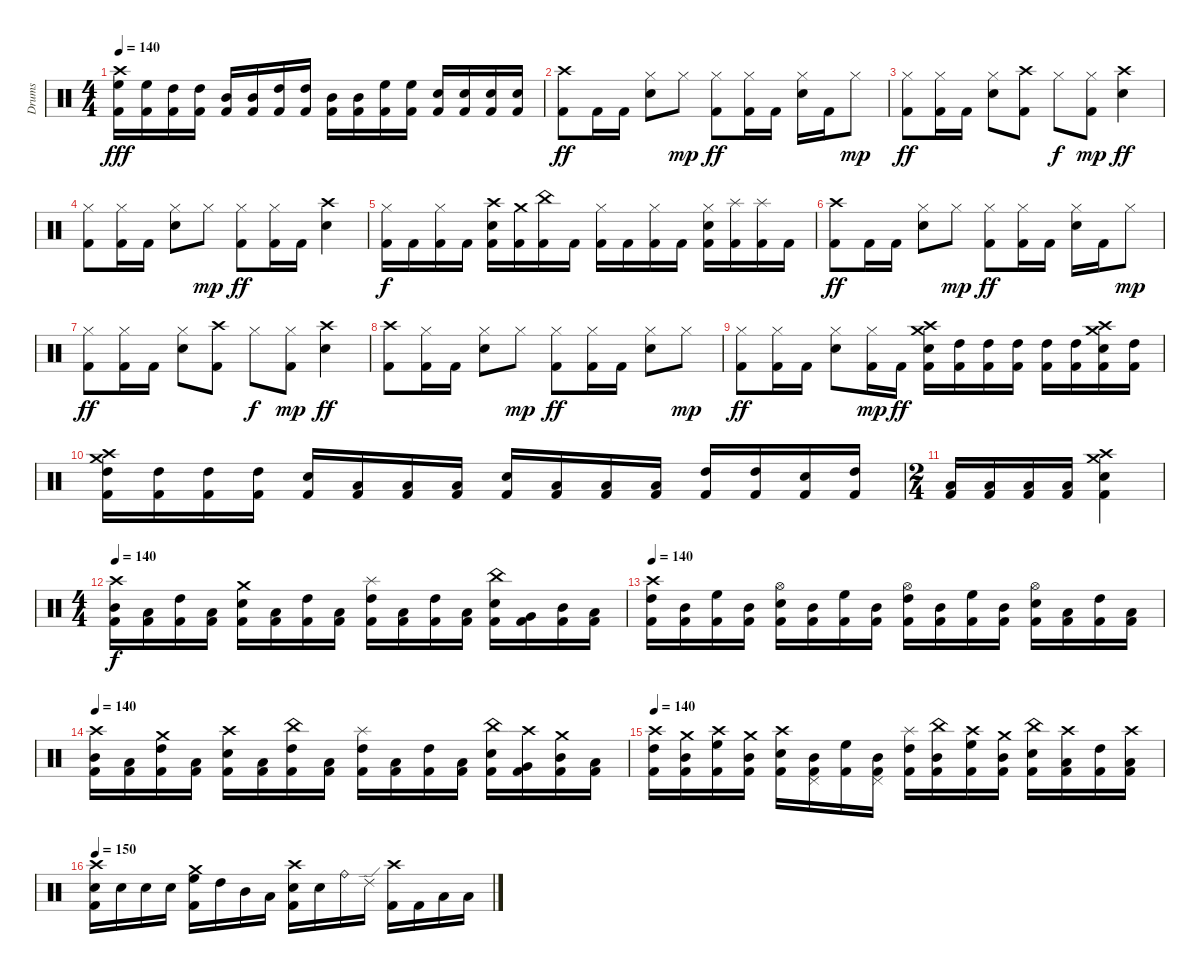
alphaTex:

\track ("Drums" "Drums") {instrument percussion}
\staff {score}
\articulation defaults
\ts (4 4)
\tempo 140
\clef neutral
\ks c
("Crash high (hit)" "High Floor Tom (hit)" "Kick (hit) 2").16{dy fff} ("High Floor Tom (hit)" "Kick (hit) 2").16 ("High Tom (hit)" "Kick (hit) 2").16 ("High Tom (hit)" "Kick (hit) 2").16 ("Mid Tom (hit)" "Kick (hit) 2").16 ("Mid Tom (hit)" "Kick (hit) 2").16 ("High Tom (hit)" "Kick (hit) 2").16 ("High Tom (hit)" "Kick (hit) 2").16 ("Mid Tom (hit)" "Kick (hit) 2").16 ("Mid Tom (hit)" "Kick (hit) 2").16 ("High Floor Tom (hit)" "Kick (hit) 2").16 ("High Floor Tom (hit)" "Kick (hit) 2").16 ("Snare (hit) 2" "Kick (hit) 2").16 ("Snare (hit) 2" "Kick (hit) 2").16 ("Snare (hit) 2" "Kick (hit) 2").16 ("Snare (hit) 2" "Kick (hit) 2").16 |
("Crash high (hit)" "Kick (hit) 2").8{dy ff} "Kick (hit) 2".16 "Kick (hit) 2".16 ("Hi-Hat (closed)" "Snare (hit) 2").8 "Hi-Hat (closed)".8{dy mp} ("Hi-Hat (closed)" "Kick (hit) 2").8{dy ff} ("Hi-Hat (closed)" "Kick (hit) 2").16 "Kick (hit) 2".16 ("Hi-Hat (closed)" "Snare (hit) 2").16 "Kick (hit) 2".16 "Hi-Hat (closed)".8{dy mp} |
("Hi-Hat (closed)" "Kick (hit) 2").8{dy ff} ("Hi-Hat (closed)" "Kick (hit) 2").16 "Kick (hit) 2".16 ("Hi-Hat (closed)" "Snare (hit) 2").8 ("Crash high (hit)" "Kick (hit) 2").8 "Hi-Hat (closed)".8{dy f} ("Kick (hit) 2" "Hi-Hat (closed)").8{dy mp} ("Snare (hit) 2" "Crash high (hit)").4{dy ff} |
("Hi-Hat (closed)" "Kick (hit) 2").8 ("Hi-Hat (closed)" "Kick (hit) 2").16 "Kick (hit) 2".16 ("Hi-Hat (closed)" "Snare (hit) 2").8 "Hi-Hat (closed)".8{dy mp} ("Hi-Hat (closed)" "Kick (hit) 2").8{dy ff} ("Hi-Hat (closed)" "Kick (hit) 2").16 "Kick (hit) 2".16 ("Snare (hit) 2" "Crash high (hit)").4 |
("Hi-Hat (closed)" "Kick (hit) 2").16{dy f} "Kick (hit) 2".16 ("Hi-Hat (closed)" "Kick (hit) 2").16 "Kick (hit) 2".16 ("Crash high (hit)" "Electric Snare (hit)" "Kick (hit) 2").16 ("Crash medium (hit)" "Kick (hit) 2").16 ("China (hit)" "Kick (hit) 2").16 "Kick (hit) 2".16 ("Hi-Hat (closed)" "Kick (hit) 2").16 "Kick (hit) 2".16 ("Hi-Hat (closed)" "Kick (hit) 2").16 "Kick (hit) 2".16 ("Hi-Hat (closed)" "Electric Snare (hit)" "Kick (hit) 2").16 ("Splash (hit)" "Kick (hit) 2").16 ("Splash (hit)" "Kick (hit) 2").16 "Kick (hit) 2".16 |
("Crash high (hit)" "Kick (hit) 2").8{dy ff} "Kick (hit) 2".16 "Kick (hit) 2".16 ("Hi-Hat (closed)" "Snare (hit) 2").8 "Hi-Hat (closed)".8{dy mp} ("Hi-Hat (closed)" "Kick (hit) 2").8{dy ff} ("Hi-Hat (closed)" "Kick (hit) 2").16 "Kick (hit) 2".16 ("Hi-Hat (closed)" "Snare (hit) 2").16 "Kick (hit) 2".16 "Hi-Hat (closed)".8{dy mp} |
("Hi-Hat (closed)" "Kick (hit) 2").8{dy ff} ("Hi-Hat (closed)" "Kick (hit) 2").16 "Kick (hit) 2".16 ("Hi-Hat (closed)" "Snare (hit) 2").8 ("Crash high (hit)" "Kick (hit) 2").8 "Hi-Hat (closed)".8{dy f} ("Kick (hit) 2" "Hi-Hat (closed)").8{dy mp} ("Snare (hit) 2" "Crash high (hit)").4{dy ff} |
("Crash high (hit)" "Kick (hit) 2").8 ("Hi-Hat (closed)" "Kick (hit) 2").16 "Kick (hit) 2".16 ("Hi-Hat (closed)" "Snare (hit) 2").8 "Hi-Hat (closed)".8{dy mp} ("Hi-Hat (closed)" "Kick (hit) 2").8{dy ff} ("Hi-Hat (closed)" "Kick (hit) 2").16 "Kick (hit) 2".16 ("Hi-Hat (closed)" "Snare (hit) 2").8 "Hi-Hat (closed)".8{dy mp} |
("Hi-Hat (closed)" "Kick (hit) 2").8{dy ff} ("Hi-Hat (closed)" "Kick (hit) 2").16 "Kick (hit) 2".16 ("Hi-Hat (closed)" "Snare (hit) 2").8 ("Kick (hit) 2" "Hi-Hat (closed)").16{dy mp} "Kick (hit) 2".16{dy ff} ("Snare (hit) 2" "Kick (hit) 2" "Crash high (hit)" "Crash medium (hit)").16 ("High Tom (hit)" "Kick (hit) 2").16 ("High Tom (hit)" "Kick (hit) 2").16 ("High Tom (hit)" "Kick (hit) 2").16 ("Kick (hit) 2" "High Tom (hit)").16 ("Kick (hit) 2" "High Tom (hit)").16 ("Snare (hit) 2" "Kick (hit) 2" "Crash high (hit)" "Crash medium (hit)").16 ("Kick (hit) 2" "High Tom (hit)").16 |
("Kick (hit) 2" "High Tom (hit)" "Crash high (hit)" "Crash medium (hit)").16 ("Kick (hit) 2" "High Tom (hit)").16 ("Kick (hit) 2" "High Tom (hit)").16 ("Kick (hit) 2" "High Tom (hit)").16 ("Kick (hit) 2" "Snare (hit) 2").16 ("Kick (hit) 2" "Low Tom (hit)").16 ("Kick (hit) 2" "Low Tom (hit)").16 ("Kick (hit) 2" "Low Tom (hit)").16 ("Snare (hit) 2" "Kick (hit) 2").16 ("Low Tom (hit)" "Kick (hit) 2").16 ("Low Tom (hit)" "Kick (hit) 2").16 ("Low Tom (hit)" "Kick (hit) 2").16 ("Kick (hit) 2" "High Tom (hit)").16 ("Kick (hit) 2" "High Tom (hit)").16 ("Snare (hit) 2" "Kick (hit) 2").16 ("Kick (hit) 2" "High Tom (hit)").16 |
\ts (2 4)
("Kick (hit) 2" "Low Tom (hit)").16 ("Kick (hit) 2" "Low Tom (hit)").16 ("Kick (hit) 2" "Low Tom (hit)").16 ("Kick (hit) 2" "Low Tom (hit)").16 ("Kick (hit) 2" "Snare (hit) 2" "Crash high (hit)" "Crash medium (hit)").4 |
\ts (4 4)
\tempo 140
("Crash high (hit)" "Mid Tom (hit)" "Kick (hit) 2").16{dy f} ("Low Tom (hit)" "Kick (hit) 2").16 ("High Tom (hit)" "Kick (hit) 2").16 ("Low Tom (hit)" "Kick (hit) 2").16 ("Crash medium (hit)" "Electric Snare (hit)" "Kick (hit) 2").16 ("Low Tom (hit)" "Kick (hit) 2").16 ("High Tom (hit)" "Kick (hit) 2").16 ("Low Tom (hit)" "Kick (hit) 2").16 ("Splash (hit)" "High Tom (hit)" "Kick (hit) 2").16 ("Low Tom (hit)" "Kick (hit) 2").16 ("High Tom (hit)" "Kick (hit) 2").16 ("Low Tom (hit)" "Kick (hit) 2").16 ("China (hit)" "Electric Snare (hit)" "Kick (hit) 2").16 ("Very Low Tom (hit)" "Kick (hit) 2").16 ("Mid Tom (hit)" "Kick (hit) 2").16 ("Low Floor Tom (hit)" "Kick (hit) 2").16 |
\tempo 140
("Crash high (hit)" "High Tom (hit)" "Kick (hit) 2").16 ("Mid Tom (hit)" "Kick (hit) 2").16 ("High Floor Tom (hit)" "Kick (hit) 2").16 ("Mid Tom (hit)" "Kick (hit) 2").16 ("Hi-Hat (open)" "Electric Snare (hit)" "Kick (hit) 2").16 ("Mid Tom (hit)" "Kick (hit) 2").16 ("High Floor Tom (hit)" "Kick (hit) 2").16 ("Mid Tom (hit)" "Kick (hit) 2").16 ("Hi-Hat (open)" "High Tom (hit)" "Kick (hit) 2").16 ("Mid Tom (hit)" "Kick (hit) 2").16 ("High Floor Tom (hit)" "Kick (hit) 2").16 ("Mid Tom (hit)" "Kick (hit) 2").16 ("Hi-Hat (open)" "Electric Snare (hit)" "Kick (hit) 2").16 ("Low Tom (hit)" "Kick (hit) 2").16 ("High Tom (hit)" "Kick (hit) 2").16 ("Low Floor Tom (hit)" "Kick (hit) 2").16 |
\tempo 140
("Crash high (hit)" "Mid Tom (hit)" "Kick (hit) 2").16 ("Low Tom (hit)" "Kick (hit) 2").16 ("Crash medium (hit)" "High Tom (hit)" "Kick (hit) 2").16 ("Low Tom (hit)" "Kick (hit) 2").16 ("Crash high (hit)" "Electric Snare (hit)" "Kick (hit) 2").16 ("Low Tom (hit)" "Kick (hit) 2").16 ("China (hit)" "High Tom (hit)" "Kick (hit) 2").16 ("Low Tom (hit)" "Kick (hit) 2").16 ("Splash (hit)" "High Tom (hit)" "Kick (hit) 2").16 ("Low Tom (hit)" "Kick (hit) 2").16 ("High Tom (hit)" "Kick (hit) 2").16 ("Low Tom (hit)" "Kick (hit) 2").16 ("China (hit)" "Electric Snare (hit)" "Kick (hit) 2").16 ("Crash high (hit)" "Very Low Tom (hit)" "Kick (hit) 2").16 ("Crash medium (hit)" "Mid Tom (hit)" "Kick (hit) 2").16 ("Low Floor Tom (hit)" "Kick (hit) 2").16 |
\tempo 140
("Crash high (hit)" "High Tom (hit)" "Kick (hit) 2").16 ("Crash medium (hit)" "Mid Tom (hit)" "Kick (hit) 2").16 ("Crash high (hit)" "High Floor Tom (hit)" "Kick (hit) 2").16 ("Crash medium (hit)" "Mid Tom (hit)" "Kick (hit) 2").16 ("Crash high (hit)" "Electric Snare (hit)" "Kick (hit) 2").16 ("Pedal Hi-Hat (hit)" "Mid Tom (hit)" "Kick (hit) 2").16 ("High Floor Tom (hit)" "Kick (hit) 2").16 ("Pedal Hi-Hat (hit)" "Mid Tom (hit)" "Kick (hit) 2").16 ("Splash (hit)" "High Tom (hit)" "Kick (hit) 2").16 ("China (hit)" "Mid Tom (hit)" "Kick (hit) 2").16 ("Crash high (hit)" "High Floor Tom (hit)" "Kick (hit) 2").16 ("Crash medium (hit)" "Mid Tom (hit)" "Kick (hit) 2").16 ("China (hit)" "Electric Snare (hit)" "Kick (hit) 2").16 ("Crash high (hit)" "Low Tom (hit)" "Kick (hit) 2").16 ("High Tom (hit)" "Kick (hit) 2").16 ("Crash high (hit)" "Low Floor Tom (hit)" "Kick (hit) 2").16 |
\tempo 150
("Crash high (hit)" "Electric Snare (hit)" "Kick (hit) 2").16 "Electric Snare (hit)".16 "Electric Snare (hit)".16 "Electric Snare (hit)".16 ("Crash medium (hit)" "High Floor Tom (hit)" "Kick (hit) 2").16 "High Tom (hit)".16 "Mid Tom (hit)".16 "Low Tom (hit)".16 ("Crash high (hit)" "Electric Snare (hit)" "Kick (hit) 2").16 "Electric Snare (hit)".16 "Ride (bell)".16 "Ride (edge) 2".16 ("Crash high (hit)" "Kick (hit) 2").16 "Kick (hit) 2".16 "Low Tom (hit)".16 "Low Floor Tom (hit)".16
